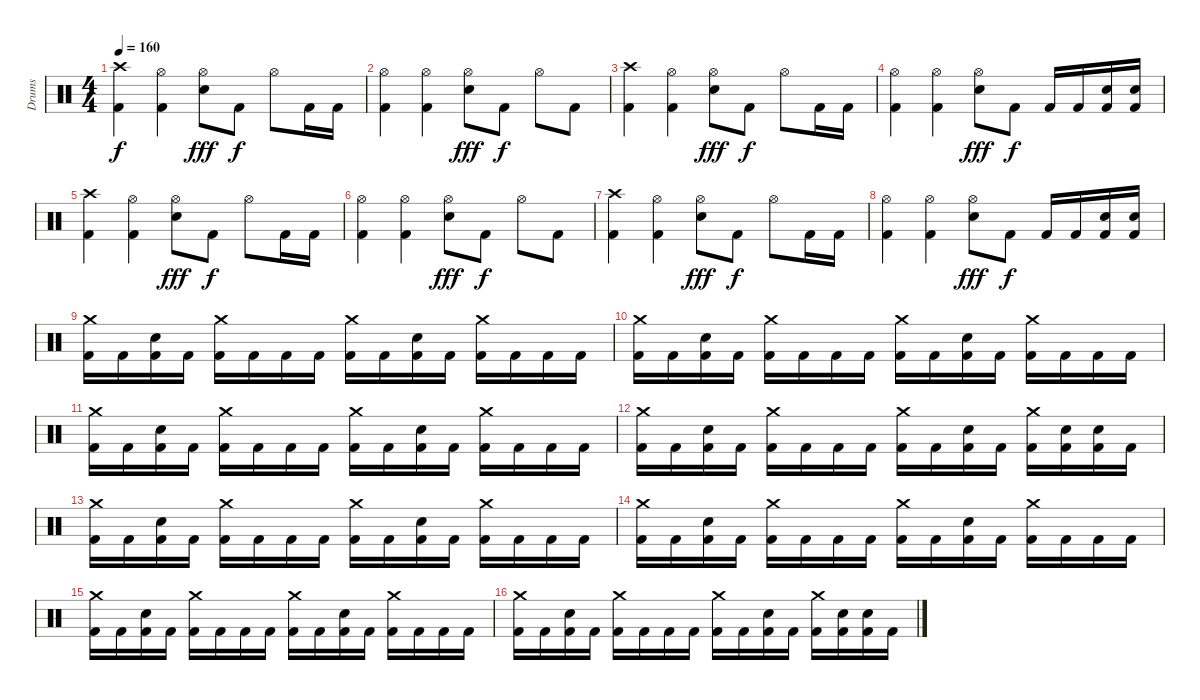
\track ("Drums" "Drums") {instrument percussion}
\staff {score}
\articulation defaults
\ts (4 4)
\tempo 160
\clef neutral
\ks c
("Crash high (hit)" "Kick (hit) 2").4{dy f} ("Hi-Hat (open)" "Kick (hit) 2").4 ("Hi-Hat (open)" "Snare (hit) 2").8{dy fff} "Kick (hit) 2".8{dy f} "Hi-Hat (open)".8 "Kick (hit) 2".16 "Kick (hit) 2".16 |
("Hi-Hat (open)" "Kick (hit) 2").4 ("Hi-Hat (open)" "Kick (hit) 2").4 ("Hi-Hat (open)" "Snare (hit) 2").8{dy fff} "Kick (hit) 2".8{dy f} "Hi-Hat (open)".8 "Kick (hit) 2".8 |
("Crash high (hit)" "Kick (hit) 2").4 ("Hi-Hat (open)" "Kick (hit) 2").4 ("Hi-Hat (open)" "Snare (hit) 2").8{dy fff} "Kick (hit) 2".8{dy f} "Hi-Hat (open)".8 "Kick (hit) 2".16 "Kick (hit) 2".16 |
("Hi-Hat (open)" "Kick (hit) 2").4 ("Hi-Hat (open)" "Kick (hit) 2").4 ("Hi-Hat (open)" "Snare (hit) 2").8{dy fff} "Kick (hit) 2".8{dy f} "Kick (hit) 2".16 "Kick (hit) 2".16 ("Snare (hit) 2" "Kick (hit) 2").16 ("Snare (hit) 2" "Kick (hit) 2").16 |
("Crash high (hit)" "Kick (hit) 2").4 ("Hi-Hat (open)" "Kick (hit) 2").4 ("Hi-Hat (open)" "Snare (hit) 2").8{dy fff} "Kick (hit) 2".8{dy f} "Hi-Hat (open)".8 "Kick (hit) 2".16 "Kick (hit) 2".16 |
("Hi-Hat (open)" "Kick (hit) 2").4 ("Hi-Hat (open)" "Kick (hit) 2").4 ("Hi-Hat (open)" "Snare (hit) 2").8{dy fff} "Kick (hit) 2".8{dy f} "Hi-Hat (open)".8 "Kick (hit) 2".8 |
("Crash high (hit)" "Kick (hit) 2").4 ("Hi-Hat (open)" "Kick (hit) 2").4 ("Hi-Hat (open)" "Snare (hit) 2").8{dy fff} "Kick (hit) 2".8{dy f} "Hi-Hat (open)".8 "Kick (hit) 2".16 "Kick (hit) 2".16 |
("Hi-Hat (open)" "Kick (hit) 2").4 ("Hi-Hat (open)" "Kick (hit) 2").4 ("Hi-Hat (open)" "Snare (hit) 2").8{dy fff} "Kick (hit) 2".8{dy f} "Kick (hit) 2".16 "Kick (hit) 2".16 ("Snare (hit) 2" "Kick (hit) 2").16 ("Snare (hit) 2" "Kick (hit) 2").16 |
("Crash medium (hit)" "Kick (hit) 2").16 "Kick (hit) 2".16 ("Snare (hit) 2" "Kick (hit) 2").16 "Kick (hit) 2".16 ("Crash medium (hit)" "Kick (hit) 2").16 "Kick (hit) 2".16 "Kick (hit) 2".16 "Kick (hit) 2".16 ("Crash medium (hit)" "Kick (hit) 2").16 "Kick (hit) 2".16 ("Snare (hit) 2" "Kick (hit) 2").16 "Kick (hit) 2".16 ("Crash medium (hit)" "Kick (hit) 2").16 "Kick (hit) 2".16 "Kick (hit) 2".16 "Kick (hit) 2".16 |
("Crash medium (hit)" "Kick (hit) 2").16 "Kick (hit) 2".16 ("Snare (hit) 2" "Kick (hit) 2").16 "Kick (hit) 2".16 ("Crash medium (hit)" "Kick (hit) 2").16 "Kick (hit) 2".16 "Kick (hit) 2".16 "Kick (hit) 2".16 ("Crash medium (hit)" "Kick (hit) 2").16 "Kick (hit) 2".16 ("Snare (hit) 2" "Kick (hit) 2").16 "Kick (hit) 2".16 ("Crash medium (hit)" "Kick (hit) 2").16 "Kick (hit) 2".16 "Kick (hit) 2".16 "Kick (hit) 2".16 |
("Crash medium (hit)" "Kick (hit) 2").16 "Kick (hit) 2".16 ("Snare (hit) 2" "Kick (hit) 2").16 "Kick (hit) 2".16 ("Crash medium (hit)" "Kick (hit) 2").16 "Kick (hit) 2".16 "Kick (hit) 2".16 "Kick (hit) 2".16 ("Crash medium (hit)" "Kick (hit) 2").16 "Kick (hit) 2".16 ("Snare (hit) 2" "Kick (hit) 2").16 "Kick (hit) 2".16 ("Crash medium (hit)" "Kick (hit) 2").16 "Kick (hit) 2".16 "Kick (hit) 2".16 "Kick (hit) 2".16 |
("Crash medium (hit)" "Kick (hit) 2").16 "Kick (hit) 2".16 ("Snare (hit) 2" "Kick (hit) 2").16 "Kick (hit) 2".16 ("Crash medium (hit)" "Kick (hit) 2").16 "Kick (hit) 2".16 "Kick (hit) 2".16 "Kick (hit) 2".16 ("Crash medium (hit)" "Kick (hit) 2").16 "Kick (hit) 2".16 ("Snare (hit) 2" "Kick (hit) 2").16 "Kick (hit) 2".16 ("Crash medium (hit)" "Kick (hit) 2").16 ("Snare (hit) 2" "Kick (hit) 2").16 ("Snare (hit) 2" "Kick (hit) 2").16 "Kick (hit) 2".16 |
("Crash medium (hit)" "Kick (hit) 2").16 "Kick (hit) 2".16 ("Snare (hit) 2" "Kick (hit) 2").16 "Kick (hit) 2".16 ("Crash medium (hit)" "Kick (hit) 2").16 "Kick (hit) 2".16 "Kick (hit) 2".16 "Kick (hit) 2".16 ("Crash medium (hit)" "Kick (hit) 2").16 "Kick (hit) 2".16 ("Snare (hit) 2" "Kick (hit) 2").16 "Kick (hit) 2".16 ("Crash medium (hit)" "Kick (hit) 2").16 "Kick (hit) 2".16 "Kick (hit) 2".16 "Kick (hit) 2".16 |
("Crash medium (hit)" "Kick (hit) 2").16 "Kick (hit) 2".16 ("Snare (hit) 2" "Kick (hit) 2").16 "Kick (hit) 2".16 ("Crash medium (hit)" "Kick (hit) 2").16 "Kick (hit) 2".16 "Kick (hit) 2".16 "Kick (hit) 2".16 ("Crash medium (hit)" "Kick (hit) 2").16 "Kick (hit) 2".16 ("Snare (hit) 2" "Kick (hit) 2").16 "Kick (hit) 2".16 ("Crash medium (hit)" "Kick (hit) 2").16 "Kick (hit) 2".16 "Kick (hit) 2".16 "Kick (hit) 2".16 |
("Crash medium (hit)" "Kick (hit) 2").16 "Kick (hit) 2".16 ("Snare (hit) 2" "Kick (hit) 2").16 "Kick (hit) 2".16 ("Crash medium (hit)" "Kick (hit) 2").16 "Kick (hit) 2".16 "Kick (hit) 2".16 "Kick (hit) 2".16 ("Crash medium (hit)" "Kick (hit) 2").16 "Kick (hit) 2".16 ("Snare (hit) 2" "Kick (hit) 2").16 "Kick (hit) 2".16 ("Crash medium (hit)" "Kick (hit) 2").16 "Kick (hit) 2".16 "Kick (hit) 2".16 "Kick (hit) 2".16 |
("Crash medium (hit)" "Kick (hit) 2").16 "Kick (hit) 2".16 ("Snare (hit) 2" "Kick (hit) 2").16 "Kick (hit) 2".16 ("Crash medium (hit)" "Kick (hit) 2").16 "Kick (hit) 2".16 "Kick (hit) 2".16 "Kick (hit) 2".16 ("Crash medium (hit)" "Kick (hit) 2").16 "Kick (hit) 2".16 ("Snare (hit) 2" "Kick (hit) 2").16 "Kick (hit) 2".16 ("Crash medium (hit)" "Kick (hit) 2").16 ("Snare (hit) 2" "Kick (hit) 2").16 ("Snare (hit) 2" "Kick (hit) 2").16 "Kick (hit) 2".16
